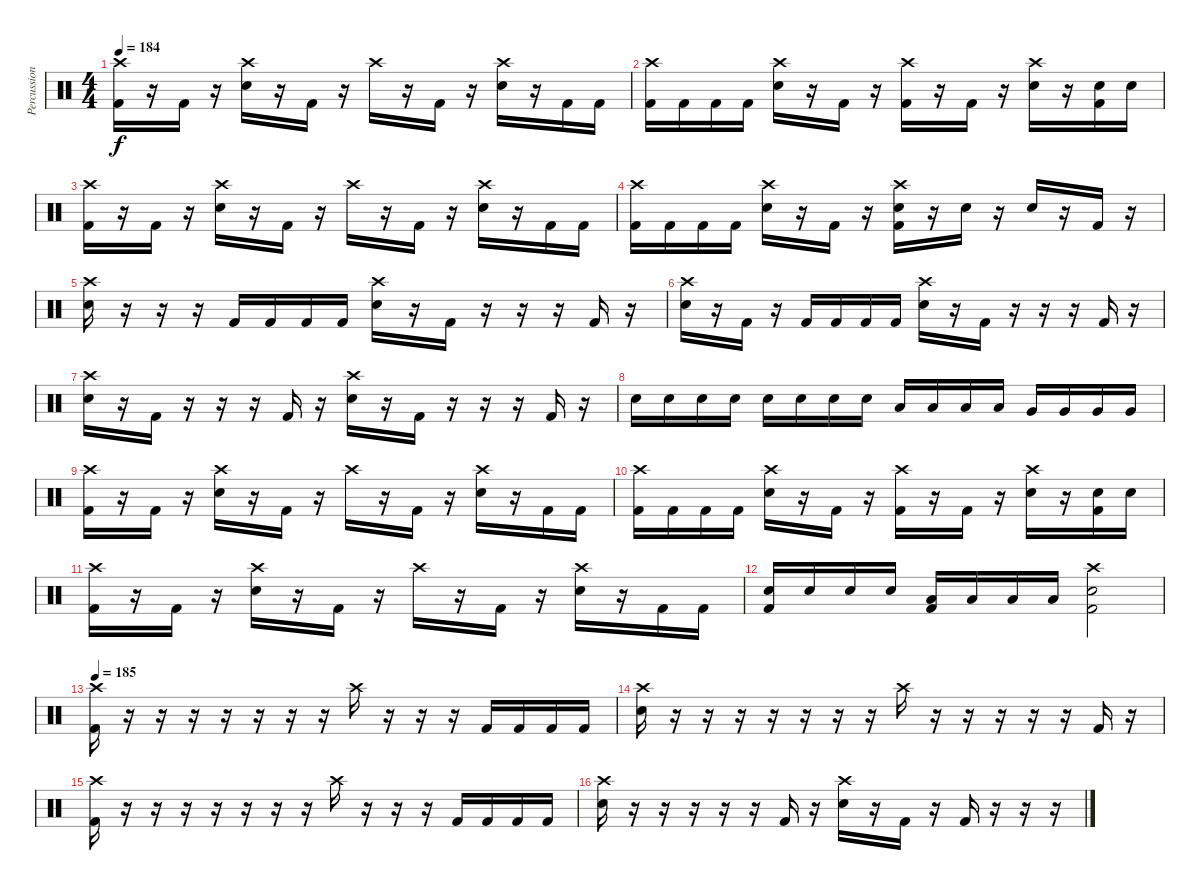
\track ("Percussion" "Percussion") {instrument percussion}
\staff {score}
\articulation defaults
\ts (4 4)
\tempo 184
\clef neutral
\ks c
("Crash high (hit)" "Kick (hit) 2").16{dy f} r.16 "Kick (hit) 2".16 r.16 ("Crash high (hit)" "Electric Snare (hit)").16 r.16 "Kick (hit) 2".16 r.16 "Crash high (hit)".16 r.16 "Kick (hit) 2".16 r.16 ("Crash high (hit)" "Electric Snare (hit)").16 r.16 "Kick (hit) 2".16 "Kick (hit) 2".16 |
("Crash high (hit)" "Kick (hit) 2").16 "Kick (hit) 2".16 "Kick (hit) 2".16 "Kick (hit) 2".16 ("Crash high (hit)" "Electric Snare (hit)").16 r.16 "Kick (hit) 2".16 r.16 ("Crash high (hit)" "Kick (hit) 2").16 r.16 "Kick (hit) 2".16 r.16 ("Crash high (hit)" "Electric Snare (hit)").16 r.16 ("Electric Snare (hit)" "Kick (hit) 2").16 "Electric Snare (hit)".16 |
("Crash high (hit)" "Kick (hit) 2").16 r.16 "Kick (hit) 2".16 r.16 ("Crash high (hit)" "Electric Snare (hit)").16 r.16 "Kick (hit) 2".16 r.16 "Crash high (hit)".16 r.16 "Kick (hit) 2".16 r.16 ("Crash high (hit)" "Electric Snare (hit)").16 r.16 "Kick (hit) 2".16 "Kick (hit) 2".16 |
("Crash high (hit)" "Kick (hit) 2").16 "Kick (hit) 2".16 "Kick (hit) 2".16 "Kick (hit) 2".16 ("Crash high (hit)" "Electric Snare (hit)").16 r.16 "Kick (hit) 2".16 r.16 ("Crash high (hit)" "Electric Snare (hit)" "Kick (hit) 2").16 r.16 "Electric Snare (hit)".16 r.16 "Electric Snare (hit)".16 r.16 "Kick (hit) 2".16 r.16 |
("Crash high (hit)" "Electric Snare (hit)").16 r.16 r.16 r.16 "Kick (hit) 2".16 "Kick (hit) 2".16 "Kick (hit) 2".16 "Kick (hit) 2".16 ("Crash high (hit)" "Electric Snare (hit)").16 r.16 "Kick (hit) 2".16 r.16 r.16 r.16 "Kick (hit) 2".16 r.16 |
("Crash high (hit)" "Electric Snare (hit)").16 r.16 "Kick (hit) 2".16 r.16 "Kick (hit) 2".16 "Kick (hit) 2".16 "Kick (hit) 2".16 "Kick (hit) 2".16 ("Crash high (hit)" "Electric Snare (hit)").16 r.16 "Kick (hit) 2".16 r.16 r.16 r.16 "Kick (hit) 2".16 r.16 |
("Crash high (hit)" "Electric Snare (hit)").16 r.16 "Kick (hit) 2".16 r.16 r.16 r.16 "Kick (hit) 2".16 r.16 ("Crash high (hit)" "Electric Snare (hit)").16 r.16 "Kick (hit) 2".16 r.16 r.16 r.16 "Kick (hit) 2".16 r.16 |
"Electric Snare (hit)".16 "Electric Snare (hit)".16 "Electric Snare (hit)".16 "Electric Snare (hit)".16 "Electric Snare (hit)".16 "Electric Snare (hit)".16 "Electric Snare (hit)".16 "Electric Snare (hit)".16 "Low Tom (hit)".16 "Low Tom (hit)".16 "Low Tom (hit)".16 "Low Tom (hit)".16 "Very Low Tom (hit)".16 "Very Low Tom (hit)".16 "Very Low Tom (hit)".16 "Very Low Tom (hit)".16 |
("Crash high (hit)" "Kick (hit) 2").16 r.16 "Kick (hit) 2".16 r.16 ("Crash high (hit)" "Electric Snare (hit)").16 r.16 "Kick (hit) 2".16 r.16 "Crash high (hit)".16 r.16 "Kick (hit) 2".16 r.16 ("Crash high (hit)" "Electric Snare (hit)").16 r.16 "Kick (hit) 2".16 "Kick (hit) 2".16 |
("Crash high (hit)" "Kick (hit) 2").16 "Kick (hit) 2".16 "Kick (hit) 2".16 "Kick (hit) 2".16 ("Crash high (hit)" "Electric Snare (hit)").16 r.16 "Kick (hit) 2".16 r.16 ("Crash high (hit)" "Kick (hit) 2").16 r.16 "Kick (hit) 2".16 r.16 ("Crash high (hit)" "Electric Snare (hit)").16 r.16 ("Electric Snare (hit)" "Kick (hit) 2").16 "Electric Snare (hit)".16 |
("Crash high (hit)" "Kick (hit) 2").16 r.16 "Kick (hit) 2".16 r.16 ("Crash high (hit)" "Electric Snare (hit)").16 r.16 "Kick (hit) 2".16 r.16 "Crash high (hit)".16 r.16 "Kick (hit) 2".16 r.16 ("Crash high (hit)" "Electric Snare (hit)").16 r.16 "Kick (hit) 2".16 "Kick (hit) 2".16 |
("Electric Snare (hit)" "Kick (hit) 2").16 "Electric Snare (hit)".16 "Electric Snare (hit)".16 "Electric Snare (hit)".16 ("Low Tom (hit)" "Kick (hit) 2").16 "Low Tom (hit)".16 "Low Tom (hit)".16 "Low Tom (hit)".16 ("Crash high (hit)" "Electric Snare (hit)" "Kick (hit) 2").2 |
\tempo 185
("Crash high (hit)" "Kick (hit) 2").16 r.16 r.16 r.16 r.16 r.16 r.16 r.16 "Crash high (hit)".16 r.16 r.16 r.16 "Kick (hit) 2".16 "Kick (hit) 2".16 "Kick (hit) 2".16 "Kick (hit) 2".16 |
("Crash high (hit)" "Electric Snare (hit)").16 r.16 r.16 r.16 r.16 r.16 r.16 r.16 "Crash high (hit)".16 r.16 r.16 r.16 r.16 r.16 "Kick (hit) 2".16 r.16 |
("Crash high (hit)" "Kick (hit) 2").16 r.16 r.16 r.16 r.16 r.16 r.16 r.16 "Crash high (hit)".16 r.16 r.16 r.16 "Kick (hit) 2".16 "Kick (hit) 2".16 "Kick (hit) 2".16 "Kick (hit) 2".16 |
("Crash high (hit)" "Electric Snare (hit)").16 r.16 r.16 r.16 r.16 r.16 "Kick (hit) 2".16 r.16 ("Crash high (hit)" "Electric Snare (hit)").16 r.16 "Kick (hit) 2".16 r.16 "Kick (hit) 2".16 r.16 r.16 r.16
